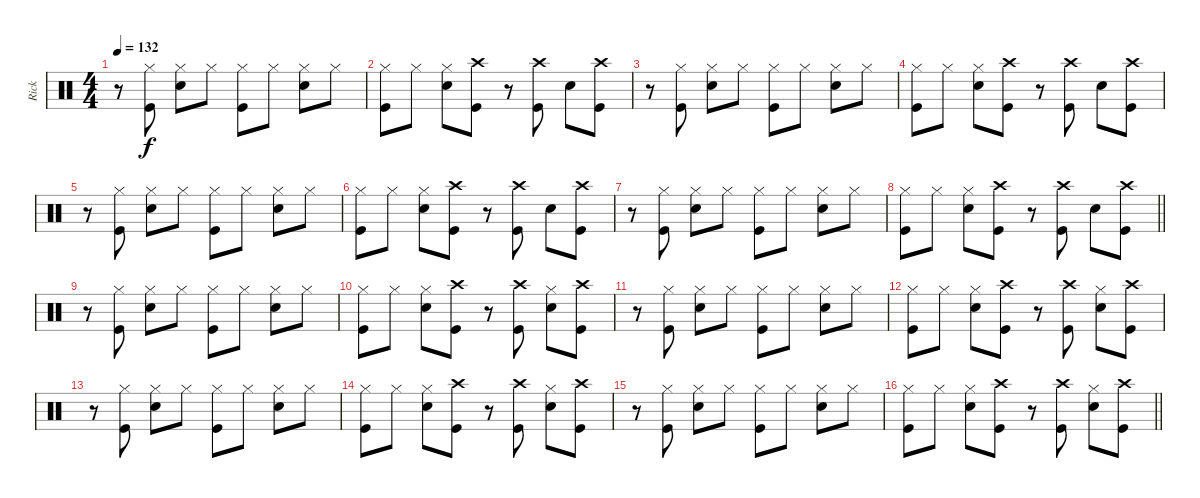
\track ("Rick" "Rick") {instrument percussion}
\staff {score}
\articulation defaults
\ts (4 4)
\tempo 132
\clef neutral
\ks aminor
r.8{dy f} ("Hi-Hat (closed)" "Kick (hit)").8 ("Hi-Hat (closed)" "Snare (hit) 2").8 "Hi-Hat (closed)".8 ("Hi-Hat (closed)" "Kick (hit)").8 "Hi-Hat (closed)".8 ("Hi-Hat (closed)" "Snare (hit) 2").8 "Hi-Hat (closed)".8 |
("Hi-Hat (closed)" "Kick (hit)").8 "Hi-Hat (closed)".8 ("Hi-Hat (closed)" "Snare (hit) 2").8 ("Crash high (hit)" "Kick (hit)").8 r.8 ("Crash high (hit)" "Kick (hit)").8 "Snare (hit) 2".8 ("Crash high (hit)" "Kick (hit)").8 |
r.8 ("Hi-Hat (closed)" "Kick (hit)").8 ("Hi-Hat (closed)" "Snare (hit) 2").8 "Hi-Hat (closed)".8 ("Hi-Hat (closed)" "Kick (hit)").8 "Hi-Hat (closed)".8 ("Hi-Hat (closed)" "Snare (hit) 2").8 "Hi-Hat (closed)".8 |
("Hi-Hat (closed)" "Kick (hit)").8 "Hi-Hat (closed)".8 ("Hi-Hat (closed)" "Snare (hit) 2").8 ("Crash high (hit)" "Kick (hit)").8 r.8 ("Crash high (hit)" "Kick (hit)").8 "Snare (hit) 2".8 ("Crash high (hit)" "Kick (hit)").8 |
r.8 ("Hi-Hat (closed)" "Kick (hit)").8 ("Hi-Hat (closed)" "Snare (hit) 2").8 "Hi-Hat (closed)".8 ("Hi-Hat (closed)" "Kick (hit)").8 "Hi-Hat (closed)".8 ("Hi-Hat (closed)" "Snare (hit) 2").8 "Hi-Hat (closed)".8 |
("Hi-Hat (closed)" "Kick (hit)").8 "Hi-Hat (closed)".8 ("Hi-Hat (closed)" "Snare (hit) 2").8 ("Crash high (hit)" "Kick (hit)").8 r.8 ("Crash high (hit)" "Kick (hit)").8 "Snare (hit) 2".8 ("Crash high (hit)" "Kick (hit)").8 |
r.8 ("Hi-Hat (closed)" "Kick (hit)").8 ("Hi-Hat (closed)" "Snare (hit) 2").8 "Hi-Hat (closed)".8 ("Hi-Hat (closed)" "Kick (hit)").8 "Hi-Hat (closed)".8 ("Hi-Hat (closed)" "Snare (hit) 2").8 "Hi-Hat (closed)".8 |
\barLineRight lightlight
("Hi-Hat (closed)" "Kick (hit)").8 "Hi-Hat (closed)".8 ("Hi-Hat (closed)" "Snare (hit) 2").8 ("Crash high (hit)" "Kick (hit)").8 r.8 ("Crash high (hit)" "Kick (hit)").8 "Snare (hit) 2".8 ("Crash high (hit)" "Kick (hit)").8 |
r.8 ("Hi-Hat (closed)" "Kick (hit)").8 ("Hi-Hat (closed)" "Snare (hit) 2").8 "Hi-Hat (closed)".8 ("Hi-Hat (closed)" "Kick (hit)").8 "Hi-Hat (closed)".8 ("Hi-Hat (closed)" "Snare (hit) 2").8 "Hi-Hat (closed)".8 |
("Hi-Hat (closed)" "Kick (hit)").8 "Hi-Hat (closed)".8 ("Hi-Hat (closed)" "Snare (hit) 2").8 ("Crash high (hit)" "Kick (hit)").8 r.8 ("Crash high (hit)" "Kick (hit)").8 ("Hi-Hat (closed)" "Snare (hit) 2").8 ("Crash high (hit)" "Kick (hit)").8 |
r.8 ("Hi-Hat (closed)" "Kick (hit)").8 ("Hi-Hat (closed)" "Snare (hit) 2").8 "Hi-Hat (closed)".8 ("Hi-Hat (closed)" "Kick (hit)").8 "Hi-Hat (closed)".8 ("Hi-Hat (closed)" "Snare (hit) 2").8 "Hi-Hat (closed)".8 |
("Hi-Hat (closed)" "Kick (hit)").8 "Hi-Hat (closed)".8 ("Hi-Hat (closed)" "Snare (hit) 2").8 ("Crash high (hit)" "Kick (hit)").8 r.8 ("Crash high (hit)" "Kick (hit)").8 ("Hi-Hat (closed)" "Snare (hit) 2").8 ("Crash high (hit)" "Kick (hit)").8 |
r.8 ("Hi-Hat (closed)" "Kick (hit)").8 ("Hi-Hat (closed)" "Snare (hit) 2").8 "Hi-Hat (closed)".8 ("Hi-Hat (closed)" "Kick (hit)").8 "Hi-Hat (closed)".8 ("Hi-Hat (closed)" "Snare (hit) 2").8 "Hi-Hat (closed)".8 |
("Hi-Hat (closed)" "Kick (hit)").8 "Hi-Hat (closed)".8 ("Hi-Hat (closed)" "Snare (hit) 2").8 ("Crash high (hit)" "Kick (hit)").8 r.8 ("Crash high (hit)" "Kick (hit)").8 ("Hi-Hat (closed)" "Snare (hit) 2").8 ("Crash high (hit)" "Kick (hit)").8 |
r.8 ("Hi-Hat (closed)" "Kick (hit)").8 ("Hi-Hat (closed)" "Snare (hit) 2").8 "Hi-Hat (closed)".8 ("Hi-Hat (closed)" "Kick (hit)").8 "Hi-Hat (closed)".8 ("Hi-Hat (closed)" "Snare (hit) 2").8 "Hi-Hat (closed)".8 |
\barLineRight lightlight
("Hi-Hat (closed)" "Kick (hit)").8 "Hi-Hat (closed)".8 ("Hi-Hat (closed)" "Snare (hit) 2").8 ("Crash high (hit)" "Kick (hit)").8 r.8 ("Crash high (hit)" "Kick (hit)").8 ("Hi-Hat (closed)" "Snare (hit) 2").8 ("Crash high (hit)" "Kick (hit)").8
